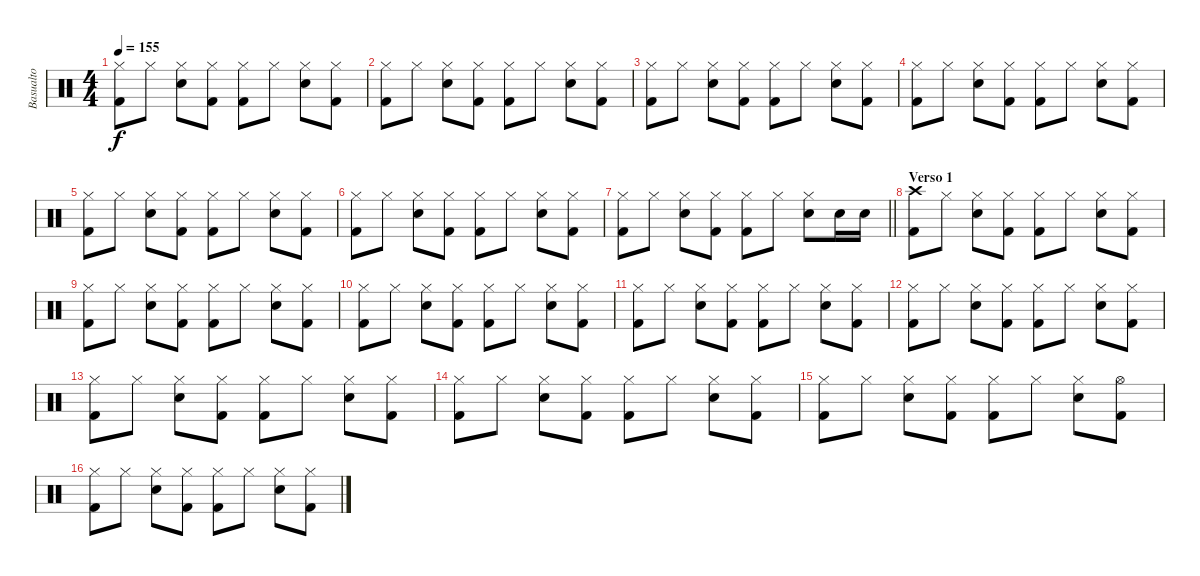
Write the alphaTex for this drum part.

\track ("Basualto" "Basualto") {instrument percussion}
\staff {score}
\articulation defaults
\ts (4 4)
\tempo 155
\clef neutral
\ks c
("Hi-Hat (closed)" "Kick (hit) 2").8{dy f} "Hi-Hat (closed)".8 ("Hi-Hat (closed)" "Electric Snare (hit)").8 ("Hi-Hat (closed)" "Kick (hit) 2").8 ("Hi-Hat (closed)" "Kick (hit) 2").8 "Hi-Hat (closed)".8 ("Hi-Hat (closed)" "Electric Snare (hit)").8 ("Hi-Hat (closed)" "Kick (hit) 2").8 |
("Hi-Hat (closed)" "Kick (hit) 2").8 "Hi-Hat (closed)".8 ("Hi-Hat (closed)" "Electric Snare (hit)").8 ("Hi-Hat (closed)" "Kick (hit) 2").8 ("Hi-Hat (closed)" "Kick (hit) 2").8 "Hi-Hat (closed)".8 ("Hi-Hat (closed)" "Electric Snare (hit)").8 ("Hi-Hat (closed)" "Kick (hit) 2").8 |
("Hi-Hat (closed)" "Kick (hit) 2").8 "Hi-Hat (closed)".8 ("Hi-Hat (closed)" "Electric Snare (hit)").8 ("Hi-Hat (closed)" "Kick (hit) 2").8 ("Hi-Hat (closed)" "Kick (hit) 2").8 "Hi-Hat (closed)".8 ("Hi-Hat (closed)" "Electric Snare (hit)").8 ("Hi-Hat (closed)" "Kick (hit) 2").8 |
("Hi-Hat (closed)" "Kick (hit) 2").8 "Hi-Hat (closed)".8 ("Hi-Hat (closed)" "Electric Snare (hit)").8 ("Hi-Hat (closed)" "Kick (hit) 2").8 ("Hi-Hat (closed)" "Kick (hit) 2").8 "Hi-Hat (closed)".8 ("Hi-Hat (closed)" "Electric Snare (hit)").8 ("Hi-Hat (closed)" "Kick (hit) 2").8 |
("Hi-Hat (closed)" "Kick (hit) 2").8 "Hi-Hat (closed)".8 ("Hi-Hat (closed)" "Electric Snare (hit)").8 ("Hi-Hat (closed)" "Kick (hit) 2").8 ("Hi-Hat (closed)" "Kick (hit) 2").8 "Hi-Hat (closed)".8 ("Hi-Hat (closed)" "Electric Snare (hit)").8 ("Hi-Hat (closed)" "Kick (hit) 2").8 |
("Hi-Hat (closed)" "Kick (hit) 2").8 "Hi-Hat (closed)".8 ("Hi-Hat (closed)" "Electric Snare (hit)").8 ("Hi-Hat (closed)" "Kick (hit) 2").8 ("Hi-Hat (closed)" "Kick (hit) 2").8 "Hi-Hat (closed)".8 ("Hi-Hat (closed)" "Electric Snare (hit)").8 ("Hi-Hat (closed)" "Kick (hit) 2").8 |
\barLineRight lightlight
("Hi-Hat (closed)" "Kick (hit) 2").8 "Hi-Hat (closed)".8 ("Hi-Hat (closed)" "Electric Snare (hit)").8 ("Hi-Hat (closed)" "Kick (hit) 2").8 ("Hi-Hat (closed)" "Kick (hit) 2").8 "Hi-Hat (closed)".8 ("Hi-Hat (closed)" "Electric Snare (hit)").8 "Electric Snare (hit)".16 "Electric Snare (hit)".16 |
\section ("" "Verso 1")
("Crash high (hit)" "Kick (hit) 2").8 "Hi-Hat (closed)".8 ("Hi-Hat (closed)" "Electric Snare (hit)").8 ("Hi-Hat (closed)" "Kick (hit) 2").8 ("Hi-Hat (closed)" "Kick (hit) 2").8 "Hi-Hat (closed)".8 ("Hi-Hat (closed)" "Electric Snare (hit)").8 ("Hi-Hat (closed)" "Kick (hit) 2").8 |
("Hi-Hat (closed)" "Kick (hit) 2").8 "Hi-Hat (closed)".8 ("Hi-Hat (closed)" "Electric Snare (hit)").8 ("Hi-Hat (closed)" "Kick (hit) 2").8 ("Hi-Hat (closed)" "Kick (hit) 2").8 "Hi-Hat (closed)".8 ("Hi-Hat (closed)" "Electric Snare (hit)").8 ("Hi-Hat (closed)" "Kick (hit) 2").8 |
("Hi-Hat (closed)" "Kick (hit) 2").8 "Hi-Hat (closed)".8 ("Hi-Hat (closed)" "Electric Snare (hit)").8 ("Hi-Hat (closed)" "Kick (hit) 2").8 ("Hi-Hat (closed)" "Kick (hit) 2").8 "Hi-Hat (closed)".8 ("Hi-Hat (closed)" "Electric Snare (hit)").8 ("Hi-Hat (closed)" "Kick (hit) 2").8 |
("Hi-Hat (closed)" "Kick (hit) 2").8 "Hi-Hat (closed)".8 ("Hi-Hat (closed)" "Electric Snare (hit)").8 ("Hi-Hat (closed)" "Kick (hit) 2").8 ("Hi-Hat (closed)" "Kick (hit) 2").8 "Hi-Hat (closed)".8 ("Hi-Hat (closed)" "Electric Snare (hit)").8 ("Hi-Hat (closed)" "Kick (hit) 2").8 |
("Hi-Hat (closed)" "Kick (hit) 2").8 "Hi-Hat (closed)".8 ("Hi-Hat (closed)" "Electric Snare (hit)").8 ("Hi-Hat (closed)" "Kick (hit) 2").8 ("Hi-Hat (closed)" "Kick (hit) 2").8 "Hi-Hat (closed)".8 ("Hi-Hat (closed)" "Electric Snare (hit)").8 ("Hi-Hat (closed)" "Kick (hit) 2").8 |
("Hi-Hat (closed)" "Kick (hit) 2").8 "Hi-Hat (closed)".8 ("Hi-Hat (closed)" "Electric Snare (hit)").8 ("Hi-Hat (closed)" "Kick (hit) 2").8 ("Hi-Hat (closed)" "Kick (hit) 2").8 "Hi-Hat (closed)".8 ("Hi-Hat (closed)" "Electric Snare (hit)").8 ("Hi-Hat (closed)" "Kick (hit) 2").8 |
("Hi-Hat (closed)" "Kick (hit) 2").8 "Hi-Hat (closed)".8 ("Hi-Hat (closed)" "Electric Snare (hit)").8 ("Hi-Hat (closed)" "Kick (hit) 2").8 ("Hi-Hat (closed)" "Kick (hit) 2").8 "Hi-Hat (closed)".8 ("Hi-Hat (closed)" "Electric Snare (hit)").8 ("Hi-Hat (closed)" "Kick (hit) 2").8 |
("Hi-Hat (closed)" "Kick (hit) 2").8 "Hi-Hat (closed)".8 ("Hi-Hat (closed)" "Electric Snare (hit)").8 ("Hi-Hat (closed)" "Kick (hit) 2").8 ("Hi-Hat (closed)" "Kick (hit) 2").8 "Hi-Hat (closed)".8 ("Hi-Hat (closed)" "Electric Snare (hit)").8 ("Hi-Hat (open)" "Kick (hit) 2").8 |
("Hi-Hat (closed)" "Kick (hit) 2").8 "Hi-Hat (closed)".8 ("Hi-Hat (closed)" "Electric Snare (hit)").8 ("Hi-Hat (closed)" "Kick (hit) 2").8 ("Hi-Hat (closed)" "Kick (hit) 2").8 "Hi-Hat (closed)".8 ("Hi-Hat (closed)" "Electric Snare (hit)").8 ("Hi-Hat (closed)" "Kick (hit) 2").8
